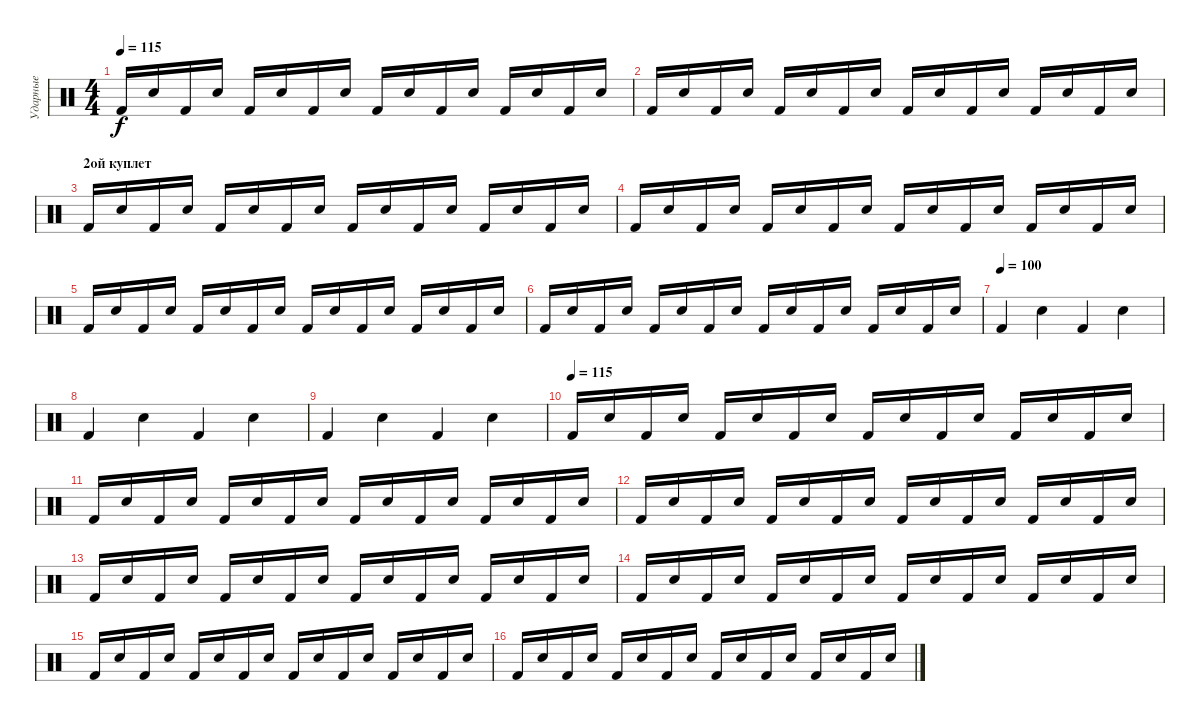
\track ("Ударные" "Ударные") {instrument percussion}
\staff {score}
\articulation defaults
\ts (4 4)
\tempo 115
\clef neutral
\ks c "Kick (hit) 2".16{dy f} "Electric Snare (hit)".16 "Kick (hit) 2".16 "Electric Snare (hit)".16 "Kick (hit) 2".16 "Electric Snare (hit)".16 "Kick (hit) 2".16 "Electric Snare (hit)".16 "Kick (hit) 2".16 "Electric Snare (hit)".16 "Kick (hit) 2".16 "Electric Snare (hit)".16 "Kick (hit) 2".16 "Electric Snare (hit)".16 "Kick (hit) 2".16 "Electric Snare (hit)".16
|
"Kick (hit) 2".16 "Electric Snare (hit)".16 "Kick (hit) 2".16 "Electric Snare (hit)".16 "Kick (hit) 2".16 "Electric Snare (hit)".16 "Kick (hit) 2".16 "Electric Snare (hit)".16 "Kick (hit) 2".16 "Electric Snare (hit)".16 "Kick (hit) 2".16 "Electric Snare (hit)".16 "Kick (hit) 2".16 "Electric Snare (hit)".16 "Kick (hit) 2".16 "Electric Snare (hit)".16 |
\section ("" "2ой куплет")
"Kick (hit) 2".16 "Electric Snare (hit)".16 "Kick (hit) 2".16 "Electric Snare (hit)".16 "Kick (hit) 2".16 "Electric Snare (hit)".16 "Kick (hit) 2".16 "Electric Snare (hit)".16 "Kick (hit) 2".16 "Electric Snare (hit)".16 "Kick (hit) 2".16 "Electric Snare (hit)".16 "Kick (hit) 2".16 "Electric Snare (hit)".16 "Kick (hit) 2".16 "Electric Snare (hit)".16 |
"Kick (hit) 2".16 "Electric Snare (hit)".16 "Kick (hit) 2".16 "Electric Snare (hit)".16 "Kick (hit) 2".16 "Electric Snare (hit)".16 "Kick (hit) 2".16 "Electric Snare (hit)".16 "Kick (hit) 2".16 "Electric Snare (hit)".16 "Kick (hit) 2".16 "Electric Snare (hit)".16 "Kick (hit) 2".16 "Electric Snare (hit)".16 "Kick (hit) 2".16 "Electric Snare (hit)".16 |
"Kick (hit) 2".16 "Electric Snare (hit)".16 "Kick (hit) 2".16 "Electric Snare (hit)".16 "Kick (hit) 2".16 "Electric Snare (hit)".16 "Kick (hit) 2".16 "Electric Snare (hit)".16 "Kick (hit) 2".16 "Electric Snare (hit)".16 "Kick (hit) 2".16 "Electric Snare (hit)".16 "Kick (hit) 2".16 "Electric Snare (hit)".16 "Kick (hit) 2".16 "Electric Snare (hit)".16 |
"Kick (hit) 2".16 "Electric Snare (hit)".16 "Kick (hit) 2".16 "Electric Snare (hit)".16 "Kick (hit) 2".16 "Electric Snare (hit)".16 "Kick (hit) 2".16 "Electric Snare (hit)".16 "Kick (hit) 2".16 "Electric Snare (hit)".16 "Kick (hit) 2".16 "Electric Snare (hit)".16 "Kick (hit) 2".16 "Electric Snare (hit)".16 "Kick (hit) 2".16 "Electric Snare (hit)".16 |
\tempo (100)
"Kick (hit) 2".4 "Electric Snare (hit)".4 "Kick (hit) 2".4 "Electric Snare (hit)".4 |
"Kick (hit) 2".4 "Electric Snare (hit)".4 "Kick (hit) 2".4 "Electric Snare (hit)".4 |
"Kick (hit) 2".4 "Electric Snare (hit)".4 "Kick (hit) 2".4 "Electric Snare (hit)".4 |
\tempo (115)
"Kick (hit) 2".16 "Electric Snare (hit)".16 "Kick (hit) 2".16 "Electric Snare (hit)".16 "Kick (hit) 2".16 "Electric Snare (hit)".16 "Kick (hit) 2".16 "Electric Snare (hit)".16 "Kick (hit) 2".16 "Electric Snare (hit)".16 "Kick (hit) 2".16 "Electric Snare (hit)".16 "Kick (hit) 2".16 "Electric Snare (hit)".16 "Kick (hit) 2".16 "Electric Snare (hit)".16 |
"Kick (hit) 2".16 "Electric Snare (hit)".16 "Kick (hit) 2".16 "Electric Snare (hit)".16 "Kick (hit) 2".16 "Electric Snare (hit)".16 "Kick (hit) 2".16 "Electric Snare (hit)".16 "Kick (hit) 2".16 "Electric Snare (hit)".16 "Kick (hit) 2".16 "Electric Snare (hit)".16 "Kick (hit) 2".16 "Electric Snare (hit)".16 "Kick (hit) 2".16 "Electric Snare (hit)".16 |
"Kick (hit) 2".16 "Electric Snare (hit)".16 "Kick (hit) 2".16 "Electric Snare (hit)".16 "Kick (hit) 2".16 "Electric Snare (hit)".16 "Kick (hit) 2".16 "Electric Snare (hit)".16 "Kick (hit) 2".16 "Electric Snare (hit)".16 "Kick (hit) 2".16 "Electric Snare (hit)".16 "Kick (hit) 2".16 "Electric Snare (hit)".16 "Kick (hit) 2".16 "Electric Snare (hit)".16 |
"Kick (hit) 2".16 "Electric Snare (hit)".16 "Kick (hit) 2".16 "Electric Snare (hit)".16 "Kick (hit) 2".16 "Electric Snare (hit)".16 "Kick (hit) 2".16 "Electric Snare (hit)".16 "Kick (hit) 2".16 "Electric Snare (hit)".16 "Kick (hit) 2".16 "Electric Snare (hit)".16 "Kick (hit) 2".16 "Electric Snare (hit)".16 "Kick (hit) 2".16 "Electric Snare (hit)".16 |
"Kick (hit) 2".16 "Electric Snare (hit)".16 "Kick (hit) 2".16 "Electric Snare (hit)".16 "Kick (hit) 2".16 "Electric Snare (hit)".16 "Kick (hit) 2".16 "Electric Snare (hit)".16 "Kick (hit) 2".16 "Electric Snare (hit)".16 "Kick (hit) 2".16 "Electric Snare (hit)".16 "Kick (hit) 2".16 "Electric Snare (hit)".16 "Kick (hit) 2".16 "Electric Snare (hit)".16 |
"Kick (hit) 2".16 "Electric Snare (hit)".16 "Kick (hit) 2".16 "Electric Snare (hit)".16 "Kick (hit) 2".16 "Electric Snare (hit)".16 "Kick (hit) 2".16 "Electric Snare (hit)".16 "Kick (hit) 2".16 "Electric Snare (hit)".16 "Kick (hit) 2".16 "Electric Snare (hit)".16 "Kick (hit) 2".16 "Electric Snare (hit)".16 "Kick (hit) 2".16 "Electric Snare (hit)".16 |
"Kick (hit) 2".16 "Electric Snare (hit)".16 "Kick (hit) 2".16 "Electric Snare (hit)".16 "Kick (hit) 2".16 "Electric Snare (hit)".16 "Kick (hit) 2".16 "Electric Snare (hit)".16 "Kick (hit) 2".16 "Electric Snare (hit)".16 "Kick (hit) 2".16 "Electric Snare (hit)".16 "Kick (hit) 2".16 "Electric Snare (hit)".16 "Kick (hit) 2".16 "Electric Snare (hit)".16
